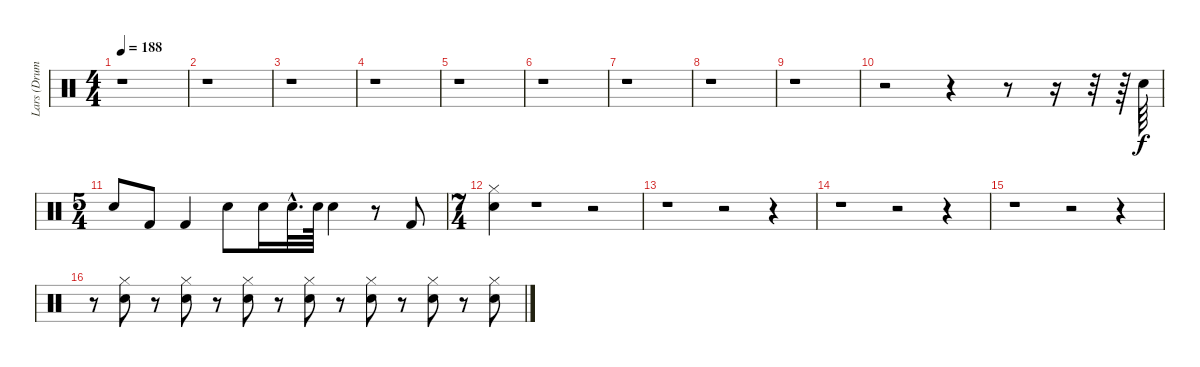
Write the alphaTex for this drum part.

\track ("Lars (Drums)" "Lars (Drum") {instrument percussion}
\staff {score}
\articulation defaults
\ts (4 4)
\tempo 188
\clef neutral
\ks c
r.1{dy f} |
r.1 |
r.1 |
r.1 |
r.1 |
r.1 |
r.1 |
r.1 |
r.1 |
r.2 r.4 r.8 r.16 r.32 r.64 "Snare (hit) 2".64 |
\ts (5 4)
"Snare (hit) 2".8 "Kick (hit) 2".8 "Kick (hit) 2".4 "Snare (hit) 2".8 "Snare (hit) 2".16 "Snare (hit) 2"{hac}.32{d} "Snare (hit) 2".64 "Snare (hit) 2".4 r.8 "Kick (hit) 2".8 |
\ts (7 4)
("Snare (hit) 2" "Hi-Hat (closed)").4 r.1 r.2 |
r.1 r.2 r.4 |
r.1 r.2 r.4 |
r.1 r.2 r.4 |
r.8 ("Snare (hit) 2" "Hi-Hat (closed)").8 r.8 ("Snare (hit) 2" "Hi-Hat (closed)").8 r.8 ("Snare (hit) 2" "Hi-Hat (closed)").8 r.8 ("Snare (hit) 2" "Hi-Hat (closed)").8 r.8 ("Snare (hit) 2" "Hi-Hat (closed)").8 r.8 ("Snare (hit) 2" "Hi-Hat (closed)").8 r.8 ("Snare (hit) 2" "Hi-Hat (closed)").8
